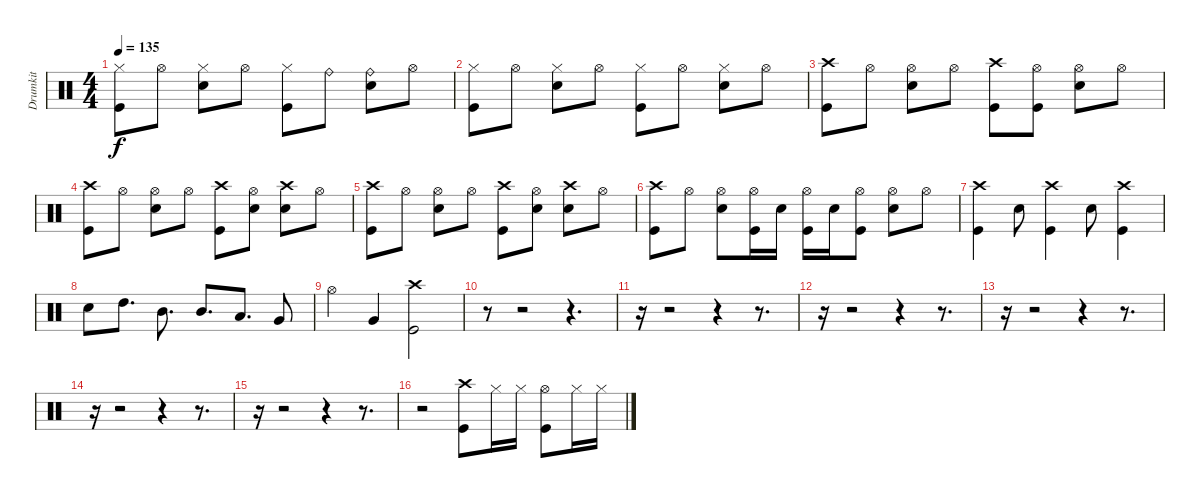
\track ("Drumkit" "Drumkit") {instrument percussion}
\staff {score}
\articulation defaults
\ts (4 4)
\tempo 135
\clef neutral
\ks c
("Hi-Hat (closed)" "Kick (hit)").8{dy f} "Hi-Hat (open)".8 ("Snare (hit) 2" "Hi-Hat (closed)").8 "Hi-Hat (open)".8 ("Kick (hit)" "Hi-Hat (closed)").8 "Ride (bell)".8 ("Ride (bell)" "Snare (hit) 2").8 "Hi-Hat (open)".8 |
("Hi-Hat (closed)" "Kick (hit)").8 "Hi-Hat (open)".8 ("Snare (hit) 2" "Hi-Hat (closed)").8 "Hi-Hat (open)".8 ("Kick (hit)" "Hi-Hat (closed)").8 "Hi-Hat (open)".8 ("Snare (hit) 2" "Hi-Hat (closed)").8 "Hi-Hat (open)".8 |
("Kick (hit)" "Crash high (hit)").8 "Hi-Hat (open)".8 ("Hi-Hat (open)" "Snare (hit) 2").8 "Hi-Hat (open)".8 ("Kick (hit)" "Crash high (hit)").8 ("Kick (hit)" "Hi-Hat (open)").8 ("Snare (hit) 2" "Hi-Hat (open)").8 "Hi-Hat (open)".8 |
("Crash high (hit)" "Kick (hit)").8 "Hi-Hat (open)".8 ("Snare (hit) 2" "Hi-Hat (open)").8 "Hi-Hat (open)".8 ("Crash high (hit)" "Kick (hit)").8 ("Snare (hit) 2" "Hi-Hat (open)").8 ("Crash high (hit)" "Snare (hit) 2").8 "Hi-Hat (open)".8 |
("Crash high (hit)" "Kick (hit)").8 "Hi-Hat (open)".8 ("Snare (hit) 2" "Hi-Hat (open)").8 "Hi-Hat (open)".8 ("Crash high (hit)" "Kick (hit)").8 ("Snare (hit) 2" "Hi-Hat (open)").8 ("Crash high (hit)" "Snare (hit) 2").8 "Hi-Hat (open)".8 |
("Crash high (hit)" "Kick (hit)").8 "Hi-Hat (open)".8 ("Snare (hit) 2" "Hi-Hat (open)").8 ("Kick (hit)" "Hi-Hat (open)").16 "Snare (hit) 2".16 ("Kick (hit)" "Hi-Hat (open)").16 "Snare (hit) 2".16 ("Kick (hit)" "Hi-Hat (open)").8 ("Hi-Hat (open)" "Snare (hit) 2").8 "Hi-Hat (open)".8 |
("Crash high (hit)" "Kick (hit)").4 "Snare (hit) 2".8 ("Crash high (hit)" "Kick (hit)").4 "Snare (hit) 2".8 ("Crash high (hit)" "Kick (hit)").4 |
"Snare (hit) 2".8 "High Tom (hit)".8{d} "Mid Tom (hit)".8{d} "Mid Tom (hit)".8{d} "Low Tom (hit)".8{d} "Very Low Tom (hit)".8 |
"Hi-Hat (open)".4 "Very Low Tom (hit)".4 ("Kick (hit)" "Crash high (hit)").2 |
r.8 r.2 r.4{d} |
r.16 r.2 r.4 r.8{d} |
r.16 r.2 r.4 r.8{d} |
r.16 r.2 r.4 r.8{d} |
r.16 r.2 r.4 r.8{d} |
r.16 r.2 r.4 r.8{d} |
r.2 ("Kick (hit)" "Crash high (hit)").8 "Hi-Hat (closed)".16 "Hi-Hat (closed)".16 ("Kick (hit)" "Hi-Hat (open)").8 "Hi-Hat (closed)".16 "Hi-Hat (closed)".16
